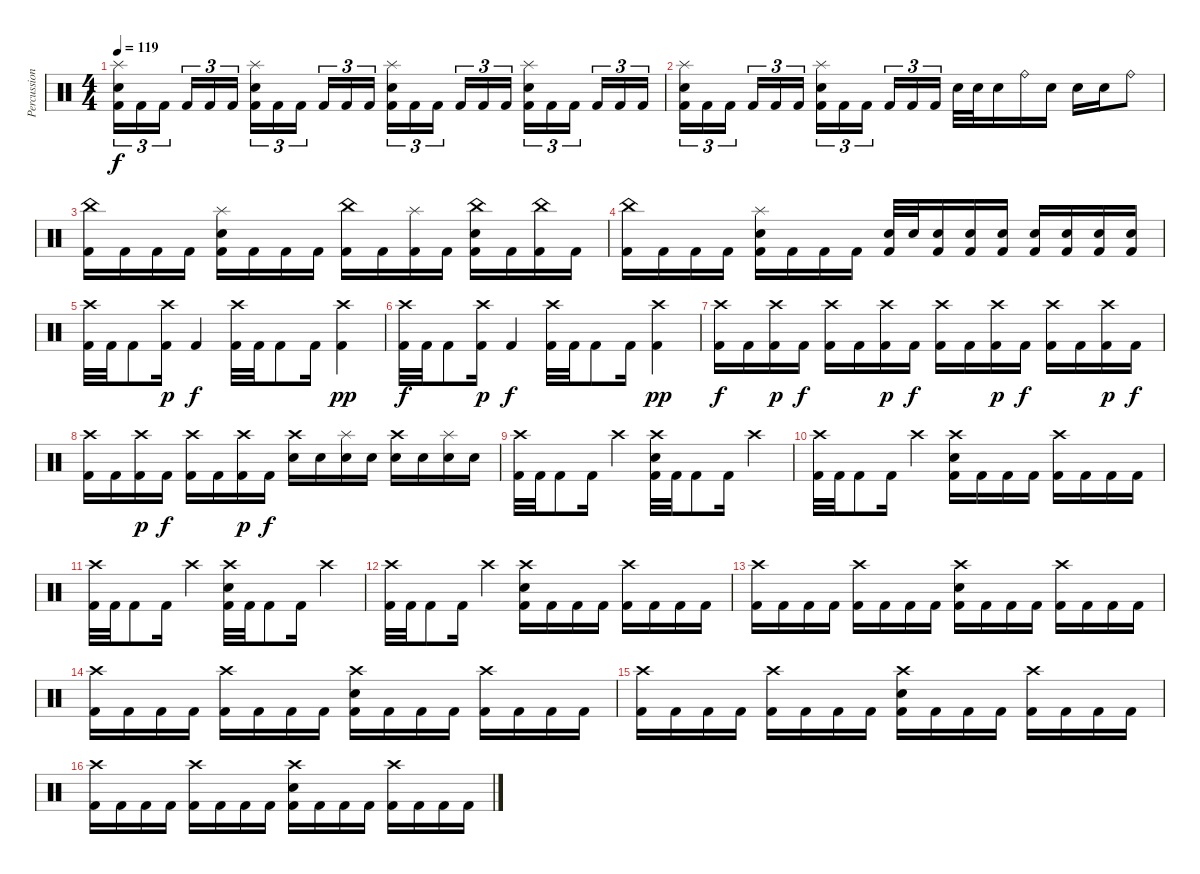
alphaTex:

\track ("Percussion" "Percussion") {instrument percussion}
\staff {score}
\articulation defaults
\ts (4 4)
\tempo 119
\clef neutral
\ks c
("Splash (hit)" "Electric Snare (hit)" "Kick (hit) 2").16{tu (3 2) dy f} "Kick (hit) 2".16{tu (3 2)} "Kick (hit) 2".16{tu (3 2)} "Kick (hit) 2".16{tu (3 2)} "Kick (hit) 2".16{tu (3 2)} "Kick (hit) 2".16{tu (3 2)} ("Splash (hit)" "Electric Snare (hit)" "Kick (hit) 2").16{tu (3 2)} "Kick (hit) 2".16{tu (3 2)} "Kick (hit) 2".16{tu (3 2)} "Kick (hit) 2".16{tu (3 2)} "Kick (hit) 2".16{tu (3 2)} "Kick (hit) 2".16{tu (3 2)} ("Splash (hit)" "Electric Snare (hit)" "Kick (hit) 2").16{tu (3 2)} "Kick (hit) 2".16{tu (3 2)} "Kick (hit) 2".16{tu (3 2)} "Kick (hit) 2".16{tu (3 2)} "Kick (hit) 2".16{tu (3 2)} "Kick (hit) 2".16{tu (3 2)} ("Splash (hit)" "Electric Snare (hit)" "Kick (hit) 2").16{tu (3 2)} "Kick (hit) 2".16{tu (3 2)} "Kick (hit) 2".16{tu (3 2)} "Kick (hit) 2".16{tu (3 2)} "Kick (hit) 2".16{tu (3 2)} "Kick (hit) 2".16{tu (3 2)} |
("Splash (hit)" "Electric Snare (hit)" "Kick (hit) 2").16{tu (3 2)} "Kick (hit) 2".16{tu (3 2)} "Kick (hit) 2".16{tu (3 2)} "Kick (hit) 2".16{tu (3 2)} "Kick (hit) 2".16{tu (3 2)} "Kick (hit) 2".16{tu (3 2)} ("Splash (hit)" "Electric Snare (hit)" "Kick (hit) 2").16{tu (3 2)} "Kick (hit) 2".16{tu (3 2)} "Kick (hit) 2".16{tu (3 2)} "Kick (hit) 2".16{tu (3 2)} "Kick (hit) 2".16{tu (3 2)} "Kick (hit) 2".16{tu (3 2)} "Electric Snare (hit)".32 "Electric Snare (hit)".32 "Electric Snare (hit)".16 "Ride (bell)".16 "Electric Snare (hit)".16 "Electric Snare (hit)".16 "Electric Snare (hit)".16 "Ride (bell)".8 |
("China (hit)" "Kick (hit) 2").16 "Kick (hit) 2".16 "Kick (hit) 2".16 "Kick (hit) 2".16 ("Splash (hit)" "Electric Snare (hit)" "Kick (hit) 2").16 "Kick (hit) 2".16 "Kick (hit) 2".16 "Kick (hit) 2".16 ("China (hit)" "Kick (hit) 2").16 "Kick (hit) 2".16 ("Splash (hit)" "Kick (hit) 2").16 "Kick (hit) 2".16 ("China (hit)" "Electric Snare (hit)" "Kick (hit) 2").16 "Kick (hit) 2".16 ("China (hit)" "Kick (hit) 2").16 "Kick (hit) 2".16 |
("China (hit)" "Kick (hit) 2").16 "Kick (hit) 2".16 "Kick (hit) 2".16 "Kick (hit) 2".16 ("Splash (hit)" "Electric Snare (hit)" "Kick (hit) 2").16 "Kick (hit) 2".16 "Kick (hit) 2".16 "Kick (hit) 2".16 ("Electric Snare (hit)" "Kick (hit) 2").32 "Electric Snare (hit)".32 ("Electric Snare (hit)" "Kick (hit) 2").16 ("Electric Snare (hit)" "Kick (hit) 2").16 ("Electric Snare (hit)" "Kick (hit) 2").16 ("Electric Snare (hit)" "Kick (hit) 2").16 ("Electric Snare (hit)" "Kick (hit) 2").16 ("Electric Snare (hit)" "Kick (hit) 2").16 ("Electric Snare (hit)" "Kick (hit) 2").16 |
("Crash high (hit)" "Kick (hit) 2").32 "Kick (hit) 2".32 "Kick (hit) 2".8 ("Crash high (hit)" "Kick (hit) 2").16{dy p} "Kick (hit) 2".4{dy f} ("Crash high (hit)" "Kick (hit) 2").32 "Kick (hit) 2".32 "Kick (hit) 2".8 "Kick (hit) 2".16 ("Crash high (hit)" "Kick (hit) 2").4{dy pp} |
("Crash high (hit)" "Kick (hit) 2").32{dy f} "Kick (hit) 2".32 "Kick (hit) 2".8 ("Crash high (hit)" "Kick (hit) 2").16{dy p} "Kick (hit) 2".4{dy f} ("Crash high (hit)" "Kick (hit) 2").32 "Kick (hit) 2".32 "Kick (hit) 2".8 "Kick (hit) 2".16 ("Crash high (hit)" "Kick (hit) 2").4{dy pp} |
("Crash high (hit)" "Kick (hit) 2").16{dy f} "Kick (hit) 2".16 ("Crash high (hit)" "Kick (hit) 2").16{dy p} "Kick (hit) 2".16{dy f} ("Crash high (hit)" "Kick (hit) 2").16 "Kick (hit) 2".16 ("Crash high (hit)" "Kick (hit) 2").16{dy p} "Kick (hit) 2".16{dy f} ("Crash high (hit)" "Kick (hit) 2").16 "Kick (hit) 2".16 ("Crash high (hit)" "Kick (hit) 2").16{dy p} "Kick (hit) 2".16{dy f} ("Crash high (hit)" "Kick (hit) 2").16 "Kick (hit) 2".16 ("Crash high (hit)" "Kick (hit) 2").16{dy p} "Kick (hit) 2".16{dy f} |
("Crash high (hit)" "Kick (hit) 2").16 "Kick (hit) 2".16 ("Crash high (hit)" "Kick (hit) 2").16{dy p} "Kick (hit) 2".16{dy f} ("Crash high (hit)" "Kick (hit) 2").16 "Kick (hit) 2".16 ("Crash high (hit)" "Kick (hit) 2").16{dy p} "Kick (hit) 2".16{dy f} ("Crash high (hit)" "Electric Snare (hit)").16 "Electric Snare (hit)".16 ("Splash (hit)" "Electric Snare (hit)").16 "Electric Snare (hit)".16 ("Crash high (hit)" "Electric Snare (hit)").16 "Electric Snare (hit)".16 ("Splash (hit)" "Electric Snare (hit)").16 "Electric Snare (hit)".16 |
("Crash high (hit)" "Kick (hit) 2").32 "Kick (hit) 2".32 "Kick (hit) 2".8 "Kick (hit) 2".16 "Crash high (hit)".4 ("Crash high (hit)" "Electric Snare (hit)" "Kick (hit) 2").32 "Kick (hit) 2".32 "Kick (hit) 2".8 "Kick (hit) 2".16 "Crash high (hit)".4 |
("Crash high (hit)" "Kick (hit) 2").32 "Kick (hit) 2".32 "Kick (hit) 2".8 "Kick (hit) 2".16 "Crash high (hit)".4 ("Crash high (hit)" "Electric Snare (hit)" "Kick (hit) 2").16 "Kick (hit) 2".16 "Kick (hit) 2".16 "Kick (hit) 2".16 ("Crash high (hit)" "Kick (hit) 2").16 "Kick (hit) 2".16 "Kick (hit) 2".16 "Kick (hit) 2".16 |
("Crash high (hit)" "Kick (hit) 2").32 "Kick (hit) 2".32 "Kick (hit) 2".8 "Kick (hit) 2".16 "Crash high (hit)".4 ("Crash high (hit)" "Electric Snare (hit)" "Kick (hit) 2").32 "Kick (hit) 2".32 "Kick (hit) 2".8 "Kick (hit) 2".16 "Crash high (hit)".4 |
("Crash high (hit)" "Kick (hit) 2").32 "Kick (hit) 2".32 "Kick (hit) 2".8 "Kick (hit) 2".16 "Crash high (hit)".4 ("Crash high (hit)" "Electric Snare (hit)" "Kick (hit) 2").16 "Kick (hit) 2".16 "Kick (hit) 2".16 "Kick (hit) 2".16 ("Crash high (hit)" "Kick (hit) 2").16 "Kick (hit) 2".16 "Kick (hit) 2".16 "Kick (hit) 2".16 |
("Crash high (hit)" "Kick (hit) 2").16 "Kick (hit) 2".16 "Kick (hit) 2".16 "Kick (hit) 2".16 ("Crash high (hit)" "Kick (hit) 2").16 "Kick (hit) 2".16 "Kick (hit) 2".16 "Kick (hit) 2".16 ("Crash high (hit)" "Electric Snare (hit)" "Kick (hit) 2").16 "Kick (hit) 2".16 "Kick (hit) 2".16 "Kick (hit) 2".16 ("Crash high (hit)" "Kick (hit) 2").16 "Kick (hit) 2".16 "Kick (hit) 2".16 "Kick (hit) 2".16 |
("Crash high (hit)" "Kick (hit) 2").16 "Kick (hit) 2".16 "Kick (hit) 2".16 "Kick (hit) 2".16 ("Crash high (hit)" "Kick (hit) 2").16 "Kick (hit) 2".16 "Kick (hit) 2".16 "Kick (hit) 2".16 ("Crash high (hit)" "Electric Snare (hit)" "Kick (hit) 2").16 "Kick (hit) 2".16 "Kick (hit) 2".16 "Kick (hit) 2".16 ("Crash high (hit)" "Kick (hit) 2").16 "Kick (hit) 2".16 "Kick (hit) 2".16 "Kick (hit) 2".16 |
("Crash high (hit)" "Kick (hit) 2").16 "Kick (hit) 2".16 "Kick (hit) 2".16 "Kick (hit) 2".16 ("Crash high (hit)" "Kick (hit) 2").16 "Kick (hit) 2".16 "Kick (hit) 2".16 "Kick (hit) 2".16 ("Crash high (hit)" "Electric Snare (hit)" "Kick (hit) 2").16 "Kick (hit) 2".16 "Kick (hit) 2".16 "Kick (hit) 2".16 ("Crash high (hit)" "Kick (hit) 2").16 "Kick (hit) 2".16 "Kick (hit) 2".16 "Kick (hit) 2".16 |
("Crash high (hit)" "Kick (hit) 2").16 "Kick (hit) 2".16 "Kick (hit) 2".16 "Kick (hit) 2".16 ("Crash high (hit)" "Kick (hit) 2").16 "Kick (hit) 2".16 "Kick (hit) 2".16 "Kick (hit) 2".16 ("Crash high (hit)" "Electric Snare (hit)" "Kick (hit) 2").16 "Kick (hit) 2".16 "Kick (hit) 2".16 "Kick (hit) 2".16 ("Crash high (hit)" "Kick (hit) 2").16 "Kick (hit) 2".16 "Kick (hit) 2".16 "Kick (hit) 2".16
